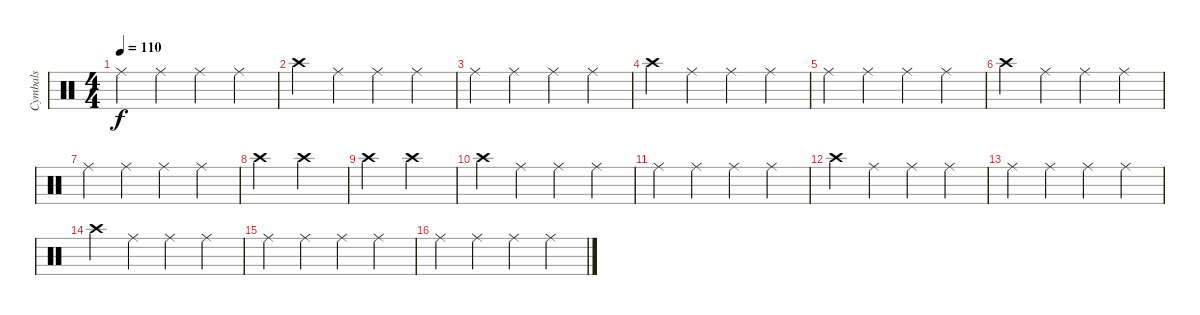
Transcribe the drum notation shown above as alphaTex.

\track ("Cymbals" "Cymbals") {instrument percussion}
\staff {score}
\articulation defaults
\ts (4 4)
\tempo 110
\clef neutral
\ks c "Ride (middle)".4{dy f} "Ride (middle)".4 "Ride (middle)".4 "Ride (middle)".4
|
"Crash high (hit)".4 "Ride (middle)".4 "Ride (middle)".4 "Ride (middle)".4 |
"Ride (middle)".4 "Ride (middle)".4 "Ride (middle)".4 "Ride (middle)".4 |
"Crash high (hit)".4 "Ride (middle)".4 "Ride (middle)".4 "Ride (middle)".4 |
"Ride (middle)".4 "Ride (middle)".4 "Ride (middle)".4 "Ride (middle)".4 |
"Crash high (hit)".4 "Ride (middle)".4 "Ride (middle)".4 "Ride (middle)".4 |
"Ride (middle)".4 "Ride (middle)".4 "Ride (middle)".4 "Ride (middle)".4 |
"Crash high (hit)".2 "Crash high (hit)".2 |
"Crash high (hit)".2 "Crash high (hit)".2 |
"Crash high (hit)".4 "Ride (middle)".4 "Ride (middle)".4 "Ride (middle)".4 |
"Ride (middle)".4 "Ride (middle)".4 "Ride (middle)".4 "Ride (middle)".4 |
"Crash high (hit)".4 "Ride (middle)".4 "Ride (middle)".4 "Ride (middle)".4 |
"Ride (middle)".4 "Ride (middle)".4 "Ride (middle)".4 "Ride (middle)".4 |
"Crash high (hit)".4 "Ride (middle)".4 "Ride (middle)".4 "Ride (middle)".4 |
"Ride (middle)".4 "Ride (middle)".4 "Ride (middle)".4 "Ride (middle)".4 |
"Ride (middle)".4 "Ride (middle)".4 "Ride (middle)".4 "Ride (middle)".4
